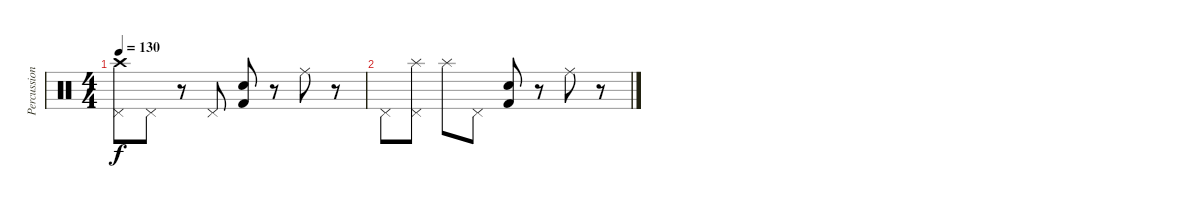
\track ("Percussions" "Percussion") {instrument percussion}
\staff {score}
\articulation defaults
\ts (4 4)
\tempo 130
\clef neutral
\ks c
("Crash high (hit)" "Pedal Hi-Hat (hit)").8{dy f} "Pedal Hi-Hat (hit)".8 r.8 "Pedal Hi-Hat (hit)".8 ("Kick (hit) 2" "Electric Snare (hit)").8 r.8 "Ride (middle)".8 r.8 |
"Pedal Hi-Hat (hit)".8 ("Splash (hit)" "Pedal Hi-Hat (hit)").8 "Splash (hit)".8 "Pedal Hi-Hat (hit)".8 ("Kick (hit) 2" "Electric Snare (hit)").8 r.8 "Ride (middle)".8 r.8
